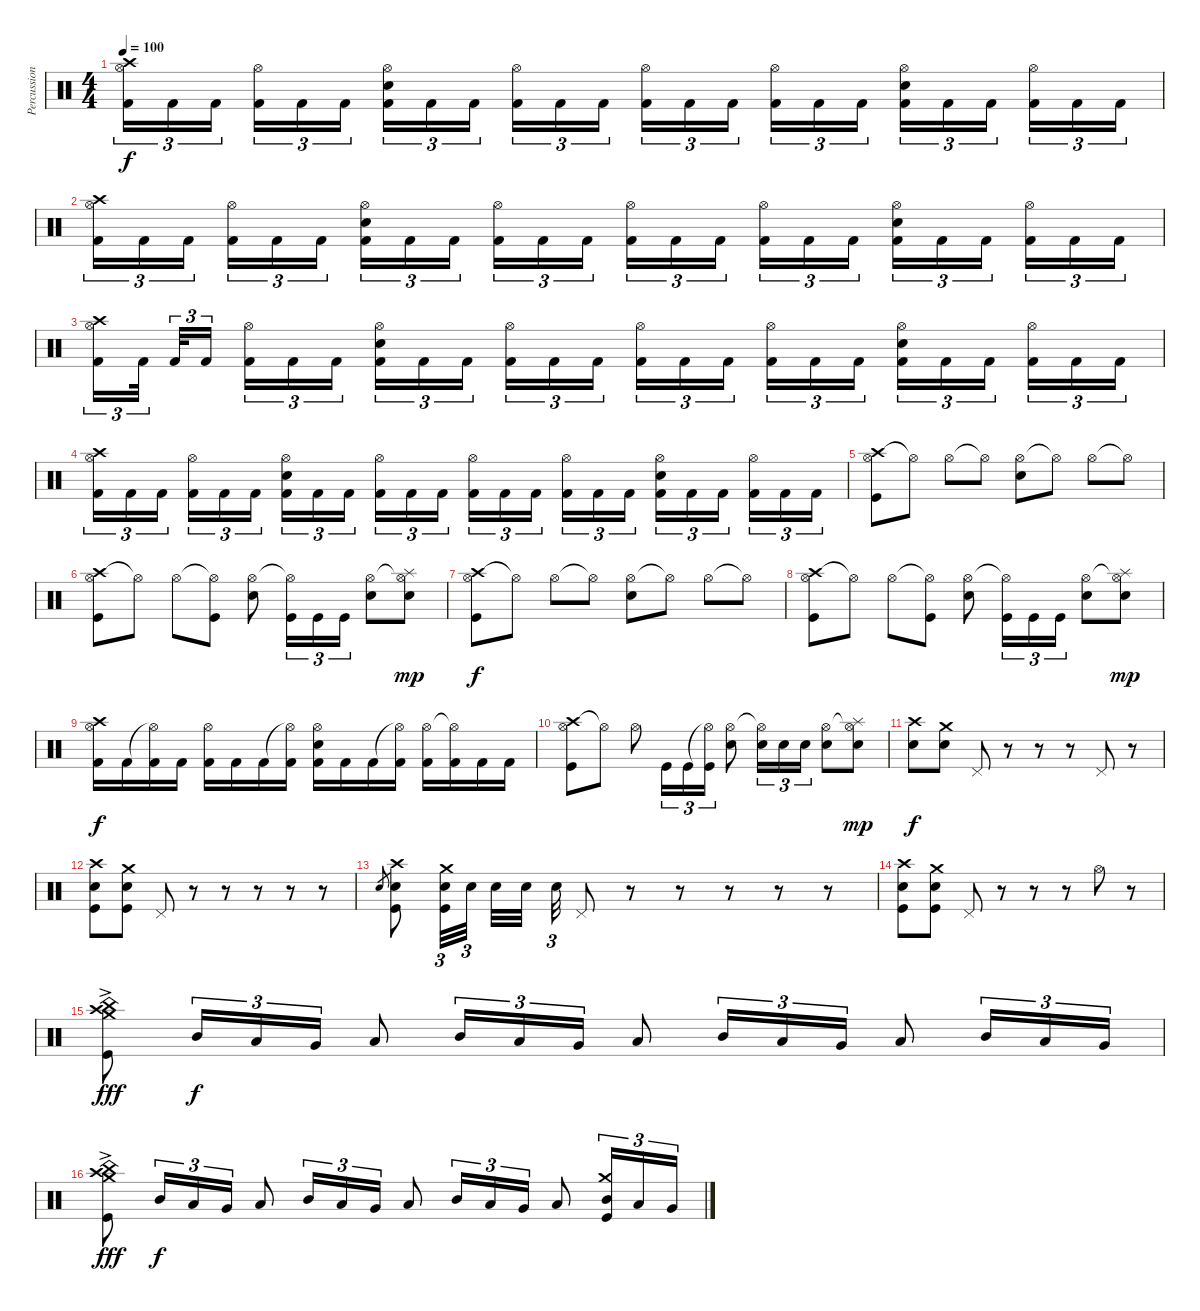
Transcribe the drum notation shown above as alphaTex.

\track ("Percussions" "Percussion") {instrument percussion}
\staff {score}
\articulation defaults
\ts (4 4)
\tempo 100
\clef neutral
\ks c
("Hi-Hat (open)" "Crash high (hit)" "Kick (hit) 2").16{tu (3 2) dy f} "Kick (hit) 2".16{tu (3 2)} "Kick (hit) 2".16{tu (3 2)} ("Hi-Hat (open)" "Kick (hit) 2").16{tu (3 2)} "Kick (hit) 2".16{tu (3 2)} "Kick (hit) 2".16{tu (3 2)} ("Hi-Hat (open)" "Snare (hit) 2" "Kick (hit) 2").16{tu (3 2)} "Kick (hit) 2".16{tu (3 2)} "Kick (hit) 2".16{tu (3 2)} ("Hi-Hat (open)" "Kick (hit) 2").16{tu (3 2)} "Kick (hit) 2".16{tu (3 2)} "Kick (hit) 2".16{tu (3 2)} ("Hi-Hat (open)" "Kick (hit) 2").16{tu (3 2)} "Kick (hit) 2".16{tu (3 2)} "Kick (hit) 2".16{tu (3 2)} ("Hi-Hat (open)" "Kick (hit) 2").16{tu (3 2)} "Kick (hit) 2".16{tu (3 2)} "Kick (hit) 2".16{tu (3 2)} ("Hi-Hat (open)" "Electric Snare (hit)" "Kick (hit) 2").16{tu (3 2)} "Kick (hit) 2".16{tu (3 2)} "Kick (hit) 2".16{tu (3 2)} ("Hi-Hat (open)" "Kick (hit) 2").16{tu (3 2)} "Kick (hit) 2".16{tu (3 2)} "Kick (hit) 2".16{tu (3 2)} |
("Hi-Hat (open)" "Crash high (hit)" "Kick (hit) 2").16{tu (3 2)} "Kick (hit) 2".16{tu (3 2)} "Kick (hit) 2".16{tu (3 2)} ("Hi-Hat (open)" "Kick (hit) 2").16{tu (3 2)} "Kick (hit) 2".16{tu (3 2)} "Kick (hit) 2".16{tu (3 2)} ("Hi-Hat (open)" "Snare (hit) 2" "Kick (hit) 2").16{tu (3 2)} "Kick (hit) 2".16{tu (3 2)} "Kick (hit) 2".16{tu (3 2)} ("Hi-Hat (open)" "Kick (hit) 2").16{tu (3 2)} "Kick (hit) 2".16{tu (3 2)} "Kick (hit) 2".16{tu (3 2)} ("Hi-Hat (open)" "Kick (hit) 2").16{tu (3 2)} "Kick (hit) 2".16{tu (3 2)} "Kick (hit) 2".16{tu (3 2)} ("Hi-Hat (open)" "Kick (hit) 2").16{tu (3 2)} "Kick (hit) 2".16{tu (3 2)} "Kick (hit) 2".16{tu (3 2)} ("Hi-Hat (open)" "Electric Snare (hit)" "Kick (hit) 2").16{tu (3 2)} "Kick (hit) 2".16{tu (3 2)} "Kick (hit) 2".16{tu (3 2)} ("Hi-Hat (open)" "Kick (hit) 2").16{tu (3 2)} "Kick (hit) 2".16{tu (3 2)} "Kick (hit) 2".16{tu (3 2)} |
("Hi-Hat (open)" "Crash high (hit)" "Kick (hit) 2").16{tu (3 2)} "Kick (hit) 2".32{tu (3 2)} "Kick (hit) 2".32{tu (3 2)} "Kick (hit) 2".16{tu (3 2)} ("Hi-Hat (open)" "Kick (hit) 2").16{tu (3 2)} "Kick (hit) 2".16{tu (3 2)} "Kick (hit) 2".16{tu (3 2)} ("Hi-Hat (open)" "Snare (hit) 2" "Kick (hit) 2").16{tu (3 2)} "Kick (hit) 2".16{tu (3 2)} "Kick (hit) 2".16{tu (3 2)} ("Hi-Hat (open)" "Kick (hit) 2").16{tu (3 2)} "Kick (hit) 2".16{tu (3 2)} "Kick (hit) 2".16{tu (3 2)} ("Hi-Hat (open)" "Kick (hit) 2").16{tu (3 2)} "Kick (hit) 2".16{tu (3 2)} "Kick (hit) 2".16{tu (3 2)} ("Hi-Hat (open)" "Kick (hit) 2").16{tu (3 2)} "Kick (hit) 2".16{tu (3 2)} "Kick (hit) 2".16{tu (3 2)} ("Hi-Hat (open)" "Electric Snare (hit)" "Kick (hit) 2").16{tu (3 2)} "Kick (hit) 2".16{tu (3 2)} "Kick (hit) 2".16{tu (3 2)} ("Hi-Hat (open)" "Kick (hit) 2").16{tu (3 2)} "Kick (hit) 2".16{tu (3 2)} "Kick (hit) 2".16{tu (3 2)} |
("Hi-Hat (open)" "Crash high (hit)" "Kick (hit) 2").16{tu (3 2)} "Kick (hit) 2".16{tu (3 2)} "Kick (hit) 2".16{tu (3 2)} ("Hi-Hat (open)" "Kick (hit) 2").16{tu (3 2)} "Kick (hit) 2".16{tu (3 2)} "Kick (hit) 2".16{tu (3 2)} ("Hi-Hat (open)" "Snare (hit) 2" "Kick (hit) 2").16{tu (3 2)} "Kick (hit) 2".16{tu (3 2)} "Kick (hit) 2".16{tu (3 2)} ("Hi-Hat (open)" "Kick (hit) 2").16{tu (3 2)} "Kick (hit) 2".16{tu (3 2)} "Kick (hit) 2".16{tu (3 2)} ("Hi-Hat (open)" "Kick (hit) 2").16{tu (3 2)} "Kick (hit) 2".16{tu (3 2)} "Kick (hit) 2".16{tu (3 2)} ("Hi-Hat (open)" "Kick (hit) 2").16{tu (3 2)} "Kick (hit) 2".16{tu (3 2)} "Kick (hit) 2".16{tu (3 2)} ("Hi-Hat (open)" "Electric Snare (hit)" "Kick (hit) 2").16{tu (3 2)} "Kick (hit) 2".16{tu (3 2)} "Kick (hit) 2".16{tu (3 2)} ("Hi-Hat (open)" "Kick (hit) 2").16{tu (3 2)} "Kick (hit) 2".16{tu (3 2)} "Kick (hit) 2".16{tu (3 2)} |
("Crash high (hit)" "Hi-Hat (open)" "Kick (hit)").8 "Hi-Hat (open)"{t}.8 "Hi-Hat (open)".8 "Hi-Hat (open)"{t}.8 ("Hi-Hat (open)" "Snare (hit) 2").8 "Hi-Hat (open)"{t}.8 "Hi-Hat (open)".8 "Hi-Hat (open)"{t}.8 |
("Crash high (hit)" "Hi-Hat (open)" "Kick (hit)").8 "Hi-Hat (open)"{t}.8 "Hi-Hat (open)".8 ("Hi-Hat (open)"{t} "Kick (hit)").8 ("Hi-Hat (open)" "Snare (hit) 2").8 ("Hi-Hat (open)"{t} "Kick (hit)").16{tu (3 2)} "Kick (hit)".16{tu (3 2)} "Kick (hit)".16{tu (3 2)} ("Hi-Hat (open)" "Snare (hit) 2").8 ("Hi-Hat (open)"{t} "Splash (hit)" "Snare (hit) 2").8{dy mp} |
("Crash high (hit)" "Hi-Hat (open)" "Kick (hit)").8{dy f} "Hi-Hat (open)"{t}.8 "Hi-Hat (open)".8 "Hi-Hat (open)"{t}.8 ("Hi-Hat (open)" "Snare (hit) 2").8 "Hi-Hat (open)"{t}.8 "Hi-Hat (open)".8 "Hi-Hat (open)"{t}.8 |
("Crash high (hit)" "Hi-Hat (open)" "Kick (hit)").8 "Hi-Hat (open)"{t}.8 "Hi-Hat (open)".8 ("Hi-Hat (open)"{t} "Kick (hit)").8 ("Hi-Hat (open)" "Snare (hit) 2").8 ("Hi-Hat (open)"{t} "Kick (hit)").16{tu (3 2)} "Kick (hit)".16{tu (3 2)} "Kick (hit)".16{tu (3 2)} ("Hi-Hat (open)" "Snare (hit) 2").8 ("Hi-Hat (open)"{t} "Splash (hit)" "Snare (hit) 2").8{dy mp} |
("Crash high (hit)" "Hi-Hat (open)" "Kick (hit) 2").16{dy f} "Kick (hit) 2".16 ("Hi-Hat (open)"{t} "Kick (hit) 2").16 "Kick (hit) 2".16 ("Hi-Hat (open)" "Kick (hit) 2").16 "Kick (hit) 2".16 "Kick (hit) 2".16 ("Hi-Hat (open)"{t} "Kick (hit) 2").16 ("Hi-Hat (open)" "Snare (hit) 2" "Kick (hit) 2").16 "Kick (hit) 2".16 "Kick (hit) 2".16 ("Hi-Hat (open)"{t} "Kick (hit) 2").16 ("Hi-Hat (open)" "Kick (hit) 2").16 ("Hi-Hat (open)"{t} "Kick (hit) 2").16 "Kick (hit) 2".16 "Kick (hit) 2".16 |
("Crash high (hit)" "Hi-Hat (open)" "Kick (hit)").8 "Hi-Hat (open)"{t}.8 "Hi-Hat (open)".8 "Kick (hit)".16{tu (3 2)} "Kick (hit)".16{tu (3 2)} ("Hi-Hat (open)"{t} "Kick (hit)").16{tu (3 2)} ("Hi-Hat (open)" "Snare (hit) 2").8 ("Hi-Hat (open)"{t} "Snare (hit) 2").16{tu (3 2)} "Snare (hit) 2".16{tu (3 2)} "Snare (hit) 2".16{tu (3 2)} ("Hi-Hat (open)" "Snare (hit) 2").8 ("Hi-Hat (open)"{t} "Splash (hit)" "Snare (hit) 2").8{dy mp} |
("Crash high (hit)" "Electric Snare (hit)").8{dy f} ("Crash medium (hit)" "Electric Snare (hit)").8 "Pedal Hi-Hat (hit)".8 r.8 r.8 r.8 "Pedal Hi-Hat (hit)".8 r.8 |
("Crash high (hit)" "Electric Snare (hit)" "Kick (hit)").8 ("Crash medium (hit)" "Electric Snare (hit)" "Kick (hit)").8 "Pedal Hi-Hat (hit)".8 r.8 r.8 r.8 r.8 r.8 |
"Electric Snare (hit)".8{gr} ("Crash high (hit)" "Electric Snare (hit)" "Kick (hit)").8 ("Crash medium (hit)" "Electric Snare (hit)" "Kick (hit)").32{tu (3 2)} "Electric Snare (hit)".32{tu (3 2)} "Electric Snare (hit)".32 "Electric Snare (hit)".32 "Electric Snare (hit)".32{tu (3 2)} "Pedal Hi-Hat (hit)".8 r.8 r.8 r.8 r.8 r.8 |
("Crash high (hit)" "Electric Snare (hit)" "Kick (hit)").8 ("Crash medium (hit)" "Electric Snare (hit)" "Kick (hit)").8 "Pedal Hi-Hat (hit)".8 r.8 r.8 r.8 "Hi-Hat (open)".8 r.8 |
("China (hit)" "Crash medium (hit)" "Crash high (hit)"{ac} "Kick (hit)").8{dy fff} "Mid Tom (hit)".16{tu (3 2) dy f} "Low Tom (hit)".16{tu (3 2)} "Very Low Tom (hit)".16{tu (3 2)} "Low Floor Tom (hit)".8 "Mid Tom (hit)".16{tu (3 2)} "Low Tom (hit)".16{tu (3 2)} "Very Low Tom (hit)".16{tu (3 2)} "Low Floor Tom (hit)".8 "Mid Tom (hit)".16{tu (3 2)} "Low Tom (hit)".16{tu (3 2)} "Very Low Tom (hit)".16{tu (3 2)} "Low Floor Tom (hit)".8 "Mid Tom (hit)".16{tu (3 2)} "Low Tom (hit)".16{tu (3 2)} "Very Low Tom (hit)".16{tu (3 2)} |
("China (hit)" "Crash medium (hit)" "Crash high (hit)"{ac} "Kick (hit)").8{dy fff} "Mid Tom (hit)".16{tu (3 2) dy f} "Low Tom (hit)".16{tu (3 2)} "Very Low Tom (hit)".16{tu (3 2)} "Low Floor Tom (hit)".8 "Mid Tom (hit)".16{tu (3 2)} "Low Tom (hit)".16{tu (3 2)} "Very Low Tom (hit)".16{tu (3 2)} "Low Floor Tom (hit)".8 "Mid Tom (hit)".16{tu (3 2)} "Low Tom (hit)".16{tu (3 2)} "Very Low Tom (hit)".16{tu (3 2)} "Low Floor Tom (hit)".8 ("Crash medium (hit)" "Mid Tom (hit)" "Kick (hit)").16{tu (3 2)} "Low Tom (hit)".16{tu (3 2)} "Very Low Tom (hit)".16{tu (3 2)}
